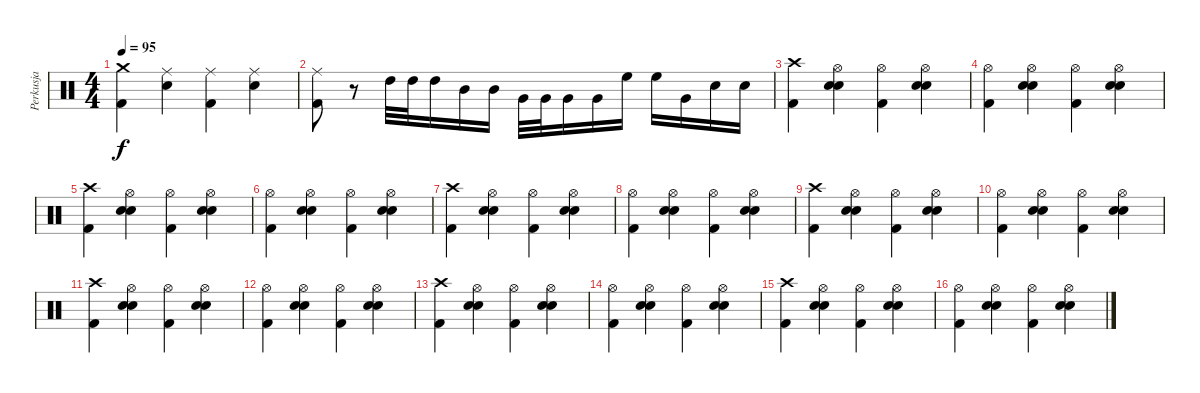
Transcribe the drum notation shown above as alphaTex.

\track ("Perkusja" "Perkusja") {instrument percussion}
\staff {score}
\articulation defaults
\ts (4 4)
\tempo 95
\clef neutral
\ks c
("Crash medium (hit)" "Kick (hit) 2").4{dy f} ("Ride (middle)" "Snare (hit) 2").4 ("Ride (middle)" "Kick (hit) 2").4 ("Ride (middle)" "Snare (hit) 2").4 |
("Ride (middle)" "Kick (hit) 2").8 r.8 "High Tom (hit)".32 "High Tom (hit)".32 "High Tom (hit)".16 "Mid Tom (hit)".16 "Mid Tom (hit)".16 "Very Low Tom (hit)".32 "Very Low Tom (hit)".32 "Very Low Tom (hit)".16 "Very Low Tom (hit)".16 "High Floor Tom (hit)".16 "High Floor Tom (hit)".16 "Very Low Tom (hit)".16 "Snare (hit) 2".16 "Snare (hit) 2".16 |
("Crash high (hit)" "Kick (hit) 2").4 ("Hi-Hat (open)" "Electric Snare (hit)" "Snare (hit) 2").4 ("Hi-Hat (open)" "Kick (hit) 2").4 ("Hi-Hat (open)" "Electric Snare (hit)" "Snare (hit) 2").4 |
("Hi-Hat (open)" "Kick (hit) 2").4 ("Hi-Hat (open)" "Electric Snare (hit)" "Snare (hit) 2").4 ("Hi-Hat (open)" "Kick (hit) 2").4 ("Hi-Hat (open)" "Electric Snare (hit)" "Snare (hit) 2").4 |
("Crash high (hit)" "Kick (hit) 2").4 ("Hi-Hat (open)" "Electric Snare (hit)" "Snare (hit) 2").4 ("Hi-Hat (open)" "Kick (hit) 2").4 ("Hi-Hat (open)" "Electric Snare (hit)" "Snare (hit) 2").4 |
("Hi-Hat (open)" "Kick (hit) 2").4 ("Hi-Hat (open)" "Electric Snare (hit)" "Snare (hit) 2").4 ("Hi-Hat (open)" "Kick (hit) 2").4 ("Hi-Hat (open)" "Electric Snare (hit)" "Snare (hit) 2").4 |
("Crash high (hit)" "Kick (hit) 2").4 ("Hi-Hat (open)" "Electric Snare (hit)" "Snare (hit) 2").4 ("Hi-Hat (open)" "Kick (hit) 2").4 ("Hi-Hat (open)" "Electric Snare (hit)" "Snare (hit) 2").4 |
("Hi-Hat (open)" "Kick (hit) 2").4 ("Hi-Hat (open)" "Electric Snare (hit)" "Snare (hit) 2").4 ("Hi-Hat (open)" "Kick (hit) 2").4 ("Hi-Hat (open)" "Electric Snare (hit)" "Snare (hit) 2").4 |
("Crash high (hit)" "Kick (hit) 2").4 ("Hi-Hat (open)" "Electric Snare (hit)" "Snare (hit) 2").4 ("Hi-Hat (open)" "Kick (hit) 2").4 ("Hi-Hat (open)" "Electric Snare (hit)" "Snare (hit) 2").4 |
("Hi-Hat (open)" "Kick (hit) 2").4 ("Hi-Hat (open)" "Electric Snare (hit)" "Snare (hit) 2").4 ("Hi-Hat (open)" "Kick (hit) 2").4 ("Hi-Hat (open)" "Electric Snare (hit)" "Snare (hit) 2").4 |
("Crash high (hit)" "Kick (hit) 2").4 ("Hi-Hat (open)" "Electric Snare (hit)" "Snare (hit) 2").4 ("Hi-Hat (open)" "Kick (hit) 2").4 ("Hi-Hat (open)" "Electric Snare (hit)" "Snare (hit) 2").4 |
("Hi-Hat (open)" "Kick (hit) 2").4 ("Hi-Hat (open)" "Electric Snare (hit)" "Snare (hit) 2").4 ("Hi-Hat (open)" "Kick (hit) 2").4 ("Hi-Hat (open)" "Electric Snare (hit)" "Snare (hit) 2").4 |
("Crash high (hit)" "Kick (hit) 2").4 ("Hi-Hat (open)" "Electric Snare (hit)" "Snare (hit) 2").4 ("Hi-Hat (open)" "Kick (hit) 2").4 ("Hi-Hat (open)" "Electric Snare (hit)" "Snare (hit) 2").4 |
("Hi-Hat (open)" "Kick (hit) 2").4 ("Hi-Hat (open)" "Electric Snare (hit)" "Snare (hit) 2").4 ("Hi-Hat (open)" "Kick (hit) 2").4 ("Hi-Hat (open)" "Electric Snare (hit)" "Snare (hit) 2").4 |
("Crash high (hit)" "Kick (hit) 2").4 ("Hi-Hat (open)" "Electric Snare (hit)" "Snare (hit) 2").4 ("Hi-Hat (open)" "Kick (hit) 2").4 ("Hi-Hat (open)" "Electric Snare (hit)" "Snare (hit) 2").4 |
("Hi-Hat (open)" "Kick (hit) 2").4 ("Hi-Hat (open)" "Electric Snare (hit)" "Snare (hit) 2").4 ("Hi-Hat (open)" "Kick (hit) 2").4 ("Hi-Hat (open)" "Electric Snare (hit)" "Snare (hit) 2").4
